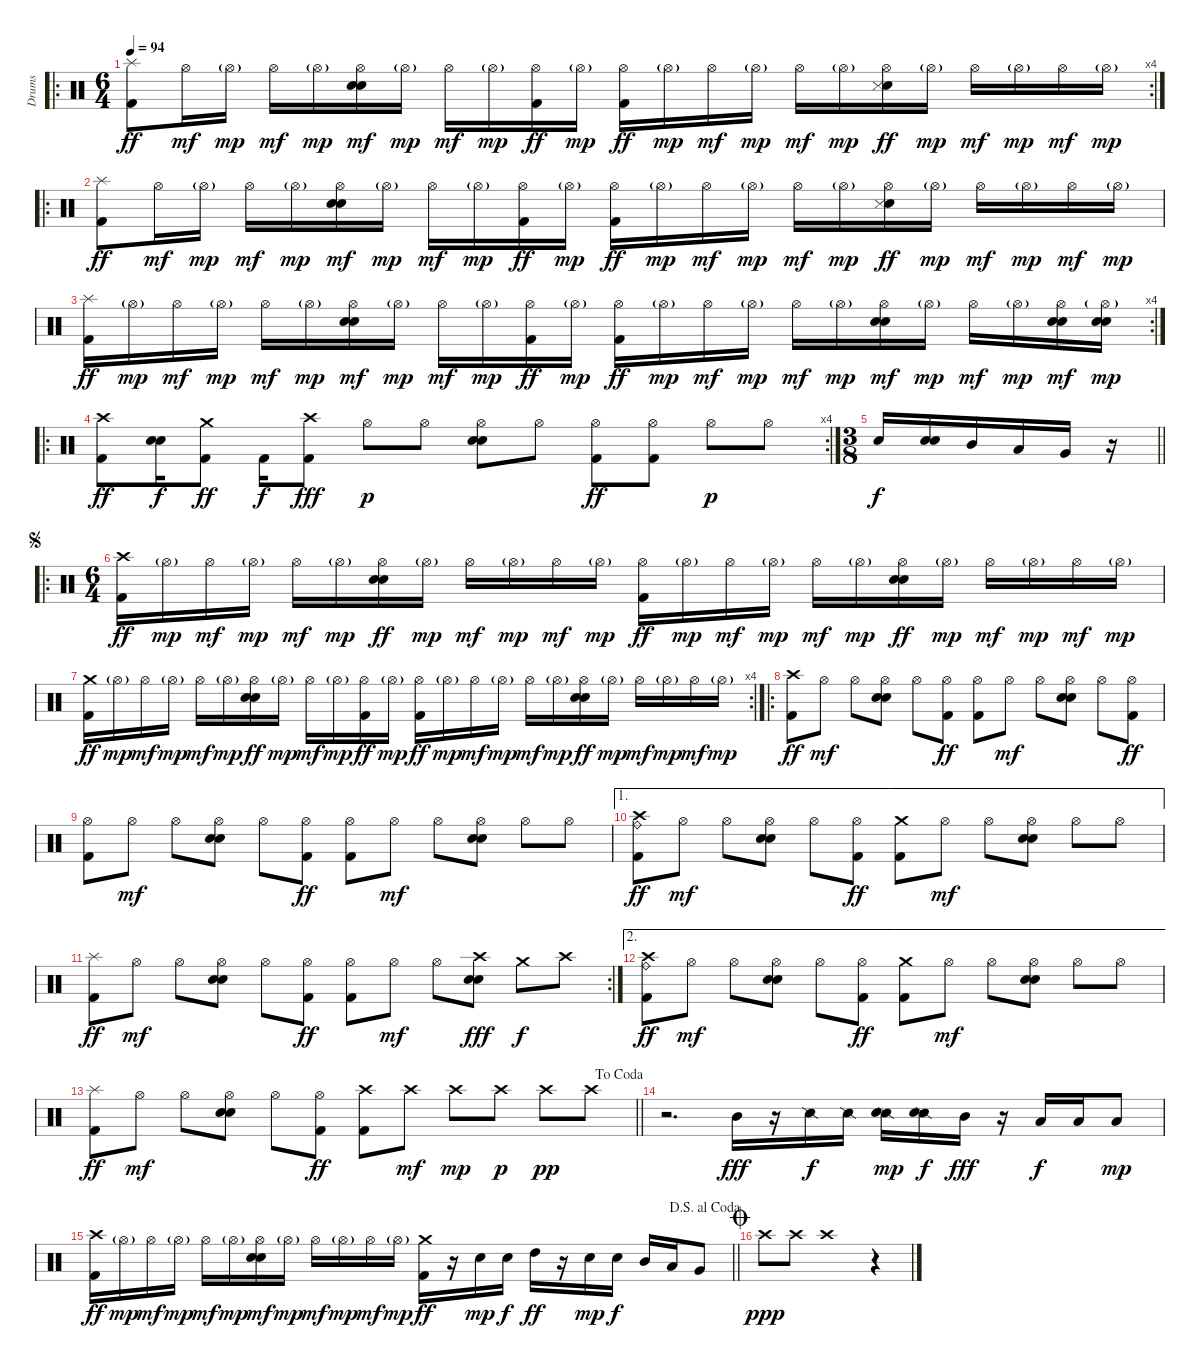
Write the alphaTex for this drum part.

\track ("Drums" "Drums") {instrument percussion}
\staff {score}
\articulation defaults
\ro
\rc 4
\ts (6 4)
\tempo 94
\clef neutral
\ks c
("Splash (hit)" "Kick (hit) 2").8{dy ff} "Hi-Hat (open)".16{dy mf} "Hi-Hat (open)"{g}.16{dy mp} "Hi-Hat (open)".16{dy mf} "Hi-Hat (open)"{g}.16{dy mp} ("Hi-Hat (open)" "Electric Snare (hit)" "Metronome (bell)").16{dy mf} "Hi-Hat (open)"{g}.16{dy mp} "Hi-Hat (open)".16{dy mf} "Hi-Hat (open)"{g}.16{dy mp} ("Hi-Hat (open)" "Kick (hit) 2").16{dy ff} "Hi-Hat (open)"{g}.16{dy mp} ("Hi-Hat (open)" "Kick (hit) 2").16{dy ff} "Hi-Hat (open)"{g}.16{dy mp} "Hi-Hat (open)".16{dy mf} "Hi-Hat (open)"{g}.16{dy mp} "Hi-Hat (open)".16{dy mf} "Hi-Hat (open)"{g}.16{dy mp} ("Hi-Hat (open)" "Electric Snare (hit)" "Metronome (hit)").16{dy ff} "Hi-Hat (open)"{g}.16{dy mp} "Hi-Hat (open)".16{dy mf} "Hi-Hat (open)"{g}.16{dy mp} "Hi-Hat (open)".16{dy mf} "Hi-Hat (open)"{g}.16{dy mp} |
\ro
("Splash (hit)" "Kick (hit) 2").8{dy ff} "Hi-Hat (open)".16{dy mf} "Hi-Hat (open)"{g}.16{dy mp} "Hi-Hat (open)".16{dy mf} "Hi-Hat (open)"{g}.16{dy mp} ("Hi-Hat (open)" "Electric Snare (hit)" "Metronome (bell)").16{dy mf} "Hi-Hat (open)"{g}.16{dy mp} "Hi-Hat (open)".16{dy mf} "Hi-Hat (open)"{g}.16{dy mp} ("Hi-Hat (open)" "Kick (hit) 2").16{dy ff} "Hi-Hat (open)"{g}.16{dy mp} ("Hi-Hat (open)" "Kick (hit) 2").16{dy ff} "Hi-Hat (open)"{g}.16{dy mp} "Hi-Hat (open)".16{dy mf} "Hi-Hat (open)"{g}.16{dy mp} "Hi-Hat (open)".16{dy mf} "Hi-Hat (open)"{g}.16{dy mp} ("Hi-Hat (open)" "Electric Snare (hit)" "Metronome (hit)").16{dy ff} "Hi-Hat (open)"{g}.16{dy mp} "Hi-Hat (open)".16{dy mf} "Hi-Hat (open)"{g}.16{dy mp} "Hi-Hat (open)".16{dy mf} "Hi-Hat (open)"{g}.16{dy mp} |
\rc 4
("Splash (hit)" "Kick (hit) 2").16{dy ff} "Hi-Hat (open)"{g}.16{dy mp} "Hi-Hat (open)".16{dy mf} "Hi-Hat (open)"{g}.16{dy mp} "Hi-Hat (open)".16{dy mf} "Hi-Hat (open)"{g}.16{dy mp} ("Hi-Hat (open)" "Electric Snare (hit)" "Metronome (bell)").16{dy mf} "Hi-Hat (open)"{g}.16{dy mp} "Hi-Hat (open)".16{dy mf} "Hi-Hat (open)"{g}.16{dy mp} ("Hi-Hat (open)" "Kick (hit) 2").16{dy ff} "Hi-Hat (open)"{g}.16{dy mp} ("Hi-Hat (open)" "Kick (hit) 2").16{dy ff} "Hi-Hat (open)"{g}.16{dy mp} "Hi-Hat (open)".16{dy mf} "Hi-Hat (open)"{g}.16{dy mp} "Hi-Hat (open)".16{dy mf} "Hi-Hat (open)"{g}.16{dy mp} ("Hi-Hat (open)" "Electric Snare (hit)" "Metronome (bell)").16{dy mf} "Hi-Hat (open)"{g}.16{dy mp} "Hi-Hat (open)".16{dy mf} "Hi-Hat (open)"{g}.16{dy mp} ("Hi-Hat (open)" "Electric Snare (hit)" "Metronome (bell)").16{dy mf} ("Hi-Hat (open)"{g} "Electric Snare (hit)" "Metronome (bell)").16{dy mp} |
\ro
\rc 4
("Crash high (hit)" "Kick (hit) 2").8{dy ff} ("Electric Snare (hit)" "Metronome (bell)").16{dy f} ("Crash medium (hit)" "Kick (hit) 2").8{dy ff} "Kick (hit) 2".16{dy f} ("Crash high (hit)" "Kick (hit) 2").8{dy fff} "Hi-Hat (open)".8{dy p} "Hi-Hat (open)".8 ("Hi-Hat (open)" "Electric Snare (hit)" "Metronome (bell)").8 "Hi-Hat (open)".8 ("Hi-Hat (open)" "Kick (hit) 2").8{dy ff} ("Hi-Hat (open)" "Kick (hit) 2").8 "Hi-Hat (open)".8{dy p} "Hi-Hat (open)".8 |
\ts (3 8)
\barLineRight lightlight "Electric Snare (hit)".16{dy f}
("Electric Snare (hit)" "Metronome (bell)").16 "Mid Tom (hit)".16 "Low Tom (hit)".16 "Very Low Tom (hit)".16 r.16 |
\ro
\ts (6 4)
\jump segno
("Crash high (hit)" "Kick (hit) 2").16{dy ff} "Hi-Hat (open)"{g}.16{dy mp} "Hi-Hat (open)".16{dy mf} "Hi-Hat (open)"{g}.16{dy mp} "Hi-Hat (open)".16{dy mf} "Hi-Hat (open)"{g}.16{dy mp} ("Hi-Hat (open)" "Electric Snare (hit)" "Metronome (bell)").16{dy ff} "Hi-Hat (open)"{g}.16{dy mp} "Hi-Hat (open)".16{dy mf} "Hi-Hat (open)"{g}.16{dy mp} "Hi-Hat (open)".16{dy mf} "Hi-Hat (open)"{g}.16{dy mp} ("Hi-Hat (open)" "Kick (hit) 2").16{dy ff} "Hi-Hat (open)"{g}.16{dy mp} "Hi-Hat (open)".16{dy mf} "Hi-Hat (open)"{g}.16{dy mp} "Hi-Hat (open)".16{dy mf} "Hi-Hat (open)"{g}.16{dy mp} ("Hi-Hat (open)" "Electric Snare (hit)" "Metronome (bell)").16{dy ff} "Hi-Hat (open)"{g}.16{dy mp} "Hi-Hat (open)".16{dy mf} "Hi-Hat (open)"{g}.16{dy mp} "Hi-Hat (open)".16{dy mf} "Hi-Hat (open)"{g}.16{dy mp} |
\rc 4
("Crash medium (hit)" "Kick (hit) 2").16{dy ff} "Hi-Hat (open)"{g}.16{dy mp} "Hi-Hat (open)".16{dy mf} "Hi-Hat (open)"{g}.16{dy mp} "Hi-Hat (open)".16{dy mf} "Hi-Hat (open)"{g}.16{dy mp} ("Hi-Hat (open)" "Electric Snare (hit)" "Metronome (bell)").16{dy ff} "Hi-Hat (open)"{g}.16{dy mp} "Hi-Hat (open)".16{dy mf} "Hi-Hat (open)"{g}.16{dy mp} ("Hi-Hat (open)" "Kick (hit) 2").16{dy ff} "Hi-Hat (open)"{g}.16{dy mp} ("Hi-Hat (open)" "Kick (hit) 2").16{dy ff} "Hi-Hat (open)"{g}.16{dy mp} "Hi-Hat (open)".16{dy mf} "Hi-Hat (open)"{g}.16{dy mp} "Hi-Hat (open)".16{dy mf} "Hi-Hat (open)"{g}.16{dy mp} ("Hi-Hat (open)" "Electric Snare (hit)" "Metronome (bell)").16{dy ff} "Hi-Hat (open)"{g}.16{dy mp} "Hi-Hat (open)".16{dy mf} "Hi-Hat (open)"{g}.16{dy mp} "Hi-Hat (open)".16{dy mf} "Hi-Hat (open)"{g}.16{dy mp} |
\ro
("Crash high (hit)" "Kick (hit) 2").8{dy ff} "Hi-Hat (open)".8{dy mf} "Hi-Hat (open)".8 ("Hi-Hat (open)" "Electric Snare (hit)" "Metronome (bell)").8 "Hi-Hat (open)".8 ("Hi-Hat (open)" "Kick (hit) 2").8{dy ff} ("Hi-Hat (open)" "Kick (hit) 2").8 "Hi-Hat (open)".8{dy mf} "Hi-Hat (open)".8 ("Hi-Hat (open)" "Electric Snare (hit)" "Metronome (bell)").8 "Hi-Hat (open)".8 ("Hi-Hat (open)" "Kick (hit) 2").8{dy ff} |
("Hi-Hat (open)" "Kick (hit) 2").8 "Hi-Hat (open)".8{dy mf} "Hi-Hat (open)".8 ("Hi-Hat (open)" "Electric Snare (hit)" "Metronome (bell)").8 "Hi-Hat (open)".8 ("Hi-Hat (open)" "Kick (hit) 2").8{dy ff} ("Hi-Hat (open)" "Kick (hit) 2").8 "Hi-Hat (open)".8{dy mf} "Hi-Hat (open)".8 ("Hi-Hat (open)" "Electric Snare (hit)" "Metronome (bell)").8 "Hi-Hat (open)".8 "Hi-Hat (open)".8 |
\ae 1
("Crash high (hit)" "Ride (bell)" "Kick (hit) 2").8{dy ff} "Hi-Hat (open)".8{dy mf} "Hi-Hat (open)".8 ("Hi-Hat (open)" "Electric Snare (hit)" "Metronome (bell)").8 "Hi-Hat (open)".8 ("Hi-Hat (open)" "Kick (hit) 2").8{dy ff} ("Crash medium (hit)" "Kick (hit) 2").8 "Hi-Hat (open)".8{dy mf} "Hi-Hat (open)".8 ("Hi-Hat (open)" "Electric Snare (hit)" "Metronome (bell)").8 "Hi-Hat (open)".8 "Hi-Hat (open)".8 |
\rc 2
("Splash (hit)" "Kick (hit) 2").8{dy ff} "Hi-Hat (open)".8{dy mf} "Hi-Hat (open)".8 ("Hi-Hat (open)" "Electric Snare (hit)" "Metronome (bell)").8 "Hi-Hat (open)".8 ("Hi-Hat (open)" "Kick (hit) 2").8{dy ff} ("Hi-Hat (open)" "Kick (hit) 2").8 "Hi-Hat (open)".8{dy mf} "Hi-Hat (open)".8 ("Crash high (hit)" "Electric Snare (hit)" "Metronome (bell)").8{dy fff} "Crash medium (hit)".8{dy f} "Crash high (hit)".8 |
\ae 2
("Crash high (hit)" "Ride (bell)" "Kick (hit) 2").8{dy ff} "Hi-Hat (open)".8{dy mf} "Hi-Hat (open)".8 ("Hi-Hat (open)" "Electric Snare (hit)" "Metronome (bell)").8 "Hi-Hat (open)".8 ("Hi-Hat (open)" "Kick (hit) 2").8{dy ff} ("Crash medium (hit)" "Kick (hit) 2").8 "Hi-Hat (open)".8{dy mf} "Hi-Hat (open)".8 ("Hi-Hat (open)" "Electric Snare (hit)" "Metronome (bell)").8 "Hi-Hat (open)".8 "Hi-Hat (open)".8 |
\jump dacoda
\barLineRight lightlight
("Splash (hit)" "Kick (hit) 2").8{dy ff} "Hi-Hat (open)".8{dy mf} "Hi-Hat (open)".8 ("Hi-Hat (open)" "Electric Snare (hit)" "Metronome (bell)").8 "Hi-Hat (open)".8 ("Hi-Hat (open)" "Kick (hit) 2").8{dy ff} ("Crash high (hit)" "Kick (hit) 2").8 "Crash high (hit)".8{dy mf} "Crash high (hit)".8{dy mp} "Crash high (hit)".8{dy p} "Crash high (hit)".8{dy pp} "Crash high (hit)".8 |
r.2{d} "Mid Tom (hit)".16{dy fff} r.16 "Snare (side stick) 2".16{dy f} "Snare (side stick) 2".16 ("Snare (side stick) 2" "Electric Snare (hit)").16{dy mp} ("Snare (side stick) 2" "Electric Snare (hit)").16{dy f} "Mid Tom (hit)".16{dy fff} r.16 "Low Tom (hit)".16{dy f} "Low Tom (hit)".16 "Low Floor Tom (hit)".8{dy mp} |
\jump dalsegnoalcoda
\barLineRight lightlight
("Crash high (hit)" "Kick (hit) 2").16{dy ff} "Hi-Hat (open)"{g}.16{dy mp} "Hi-Hat (open)".16{dy mf} "Hi-Hat (open)"{g}.16{dy mp} "Hi-Hat (open)".16{dy mf} "Hi-Hat (open)"{g}.16{dy mp} ("Hi-Hat (open)" "Electric Snare (hit)" "Metronome (bell)").16{dy mf} "Hi-Hat (open)"{g}.16{dy mp} "Hi-Hat (open)".16{dy mf} "Hi-Hat (open)"{g}.16{dy mp} "Hi-Hat (open)".16{dy mf} "Hi-Hat (open)"{g}.16{dy mp} ("Crash medium (hit)" "Kick (hit) 2").16{dy ff} r.16 "Electric Snare (hit)".16{dy mp} "Electric Snare (hit)".16{dy f} "High Tom (hit)".16{dy ff} r.16 "Electric Snare (hit)".16{dy mp} "Electric Snare (hit)".16{dy f} "Mid Tom (hit)".16 "Low Tom (hit)".16 "Very Low Tom (hit)".8 |
\jump coda "Crash high (hit)".8{dy ppp} "Crash high (hit)".8 "Crash high (hit)".1
r.4
